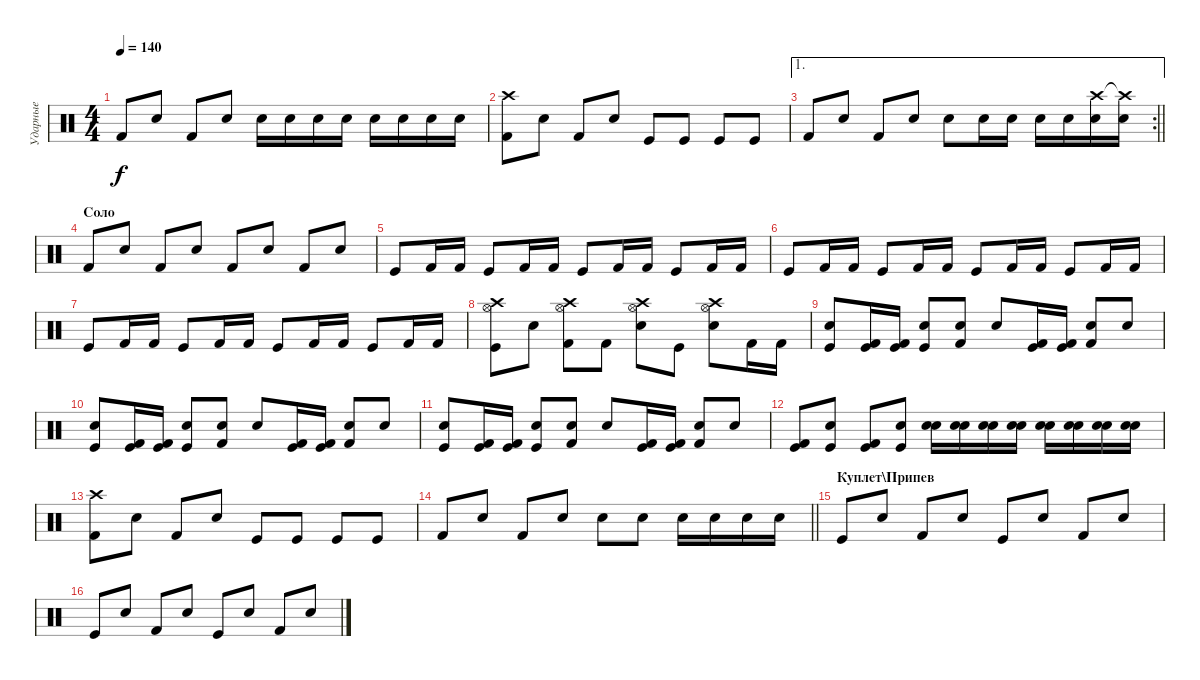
\track ("Ударные" "Ударные") {instrument percussion}
\staff {score}
\articulation defaults
\ts (4 4)
\tempo 140
\clef neutral
\ks c "Kick (hit) 2".8{dy f} "Snare (hit) 2".8 "Kick (hit) 2".8 "Snare (hit) 2".8 "Electric Snare (hit)".16 "Snare (hit) 2".16 "Electric Snare (hit)".16 "Snare (hit) 2".16 "Electric Snare (hit)".16 "Snare (hit) 2".16 "Snare (hit) 2".16 "Snare (hit) 2".16
|
("Crash high (hit)" "Kick (hit) 2").8 "Snare (hit) 2".8 "Kick (hit) 2".8 "Snare (hit) 2".8 "Kick (hit)".8 "Kick (hit)".8 "Kick (hit)".8 "Kick (hit)".8 |
\ae 1
\rc 2
\barLineRight lightlight "Kick (hit) 2".8 "Snare (hit) 2".8 "Kick (hit) 2".8 "Snare (hit) 2".8 "Snare (hit) 2".8 "Snare (hit) 2".16 "Snare (hit) 2".16 "Snare (hit) 2".16 "Snare (hit) 2".16
("Crash high (hit)" "Snare (hit) 2").16 ("Crash high (hit)"{t} "Snare (hit) 2").16 |
\section ("" "Соло")
"Kick (hit) 2".8 "Snare (hit) 2".8 "Kick (hit) 2".8 "Snare (hit) 2".8 "Kick (hit) 2".8 "Snare (hit) 2".8 "Kick (hit) 2".8 "Snare (hit) 2".8 |
"Kick (hit)".8 "Kick (hit) 2".16 "Kick (hit) 2".16 "Kick (hit)".8 "Kick (hit) 2".16 "Kick (hit) 2".16 "Kick (hit)".8 "Kick (hit) 2".16 "Kick (hit) 2".16 "Kick (hit)".8 "Kick (hit) 2".16 "Kick (hit) 2".16 |
"Kick (hit)".8 "Kick (hit) 2".16 "Kick (hit) 2".16 "Kick (hit)".8 "Kick (hit) 2".16 "Kick (hit) 2".16 "Kick (hit)".8 "Kick (hit) 2".16 "Kick (hit) 2".16 "Kick (hit)".8 "Kick (hit) 2".16 "Kick (hit) 2".16 |
"Kick (hit)".8 "Kick (hit) 2".16 "Kick (hit) 2".16 "Kick (hit)".8 "Kick (hit) 2".16 "Kick (hit) 2".16 "Kick (hit)".8 "Kick (hit) 2".16 "Kick (hit) 2".16 "Kick (hit)".8 "Kick (hit) 2".16 "Kick (hit) 2".16 |
("Kick (hit)" "Hi-Hat (open)" "Crash high (hit)").8 "Snare (hit) 2".8 ("Kick (hit) 2" "Hi-Hat (open)" "Crash high (hit)").8 "Kick (hit) 2".8 ("Snare (hit) 2" "Hi-Hat (open)" "Crash high (hit)").8 "Kick (hit)".8 ("Snare (hit) 2" "Hi-Hat (open)" "Crash high (hit)").8 "Kick (hit) 2".16 "Kick (hit) 2".16 |
("Snare (hit) 2" "Kick (hit)").8 ("Kick (hit) 2" "Kick (hit)").16 ("Kick (hit) 2" "Kick (hit)").16 ("Snare (hit) 2" "Kick (hit)").8 ("Kick (hit) 2" "Electric Snare (hit)").8 "Snare (hit) 2".8 ("Kick (hit) 2" "Kick (hit)").16 ("Kick (hit) 2" "Kick (hit)").16 ("Snare (hit) 2" "Kick (hit) 2").8 "Electric Snare (hit)".8 |
("Snare (hit) 2" "Kick (hit)").8 ("Kick (hit) 2" "Kick (hit)").16 ("Kick (hit) 2" "Kick (hit)").16 ("Snare (hit) 2" "Kick (hit)").8 ("Kick (hit) 2" "Electric Snare (hit)").8 "Snare (hit) 2".8 ("Kick (hit) 2" "Kick (hit)").16 ("Kick (hit) 2" "Kick (hit)").16 ("Snare (hit) 2" "Kick (hit) 2").8 "Electric Snare (hit)".8 |
("Snare (hit) 2" "Kick (hit)").8 ("Kick (hit) 2" "Kick (hit)").16 ("Kick (hit) 2" "Kick (hit)").16 ("Snare (hit) 2" "Kick (hit)").8 ("Kick (hit) 2" "Electric Snare (hit)").8 "Snare (hit) 2".8 ("Kick (hit) 2" "Kick (hit)").16 ("Kick (hit) 2" "Kick (hit)").16 ("Snare (hit) 2" "Kick (hit) 2").8 "Electric Snare (hit)".8 |
("Kick (hit)" "Kick (hit) 2").8 ("Kick (hit)" "Snare (hit) 2").8 ("Kick (hit)" "Kick (hit) 2").8 ("Kick (hit)" "Snare (hit) 2").8 ("Electric Snare (hit)" "Snare (hit) 2").16 ("Electric Snare (hit)" "Snare (hit) 2").16 ("Electric Snare (hit)" "Snare (hit) 2").16 ("Electric Snare (hit)" "Snare (hit) 2").16 ("Electric Snare (hit)" "Snare (hit) 2").16 ("Electric Snare (hit)" "Snare (hit) 2").16 ("Electric Snare (hit)" "Snare (hit) 2").16 ("Electric Snare (hit)" "Snare (hit) 2").16 |
("Crash high (hit)" "Kick (hit) 2").8 "Snare (hit) 2".8 "Kick (hit) 2".8 "Snare (hit) 2".8 "Kick (hit)".8 "Kick (hit)".8 "Kick (hit)".8 "Kick (hit)".8 |
\barLineRight lightlight "Kick (hit) 2".8 "Snare (hit) 2".8 "Kick (hit) 2".8 "Snare (hit) 2".8 "Snare (hit) 2".8 "Snare (hit) 2".8 "Snare (hit) 2".16 "Snare (hit) 2".16 "Snare (hit) 2".16 "Snare (hit) 2".16
|
\section ("" "Куплет\\Припев")
"Kick (hit)".8 "Snare (hit) 2".8 "Kick (hit) 2".8 "Snare (hit) 2".8 "Kick (hit)".8 "Snare (hit) 2".8 "Kick (hit) 2".8 "Snare (hit) 2".8 |
"Kick (hit)".8 "Snare (hit) 2".8 "Kick (hit) 2".8 "Snare (hit) 2".8 "Kick (hit)".8 "Snare (hit) 2".8 "Kick (hit) 2".8 "Snare (hit) 2".8
